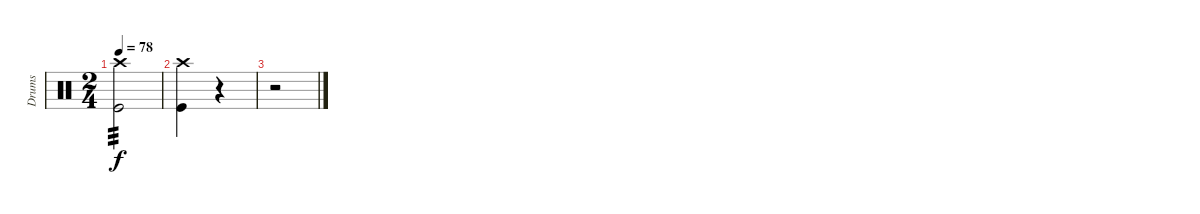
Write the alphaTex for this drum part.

\track ("Drums" "Drums") {instrument percussion}
\staff {score}
\articulation defaults
\ts (2 4)
\tempo 78
\clef neutral
\ks c
("Crash high (hit)" "Kick (hit)").2{tp 3 dy f} |
("Crash high (hit)" "Kick (hit)").4 r.4 |
r.2
